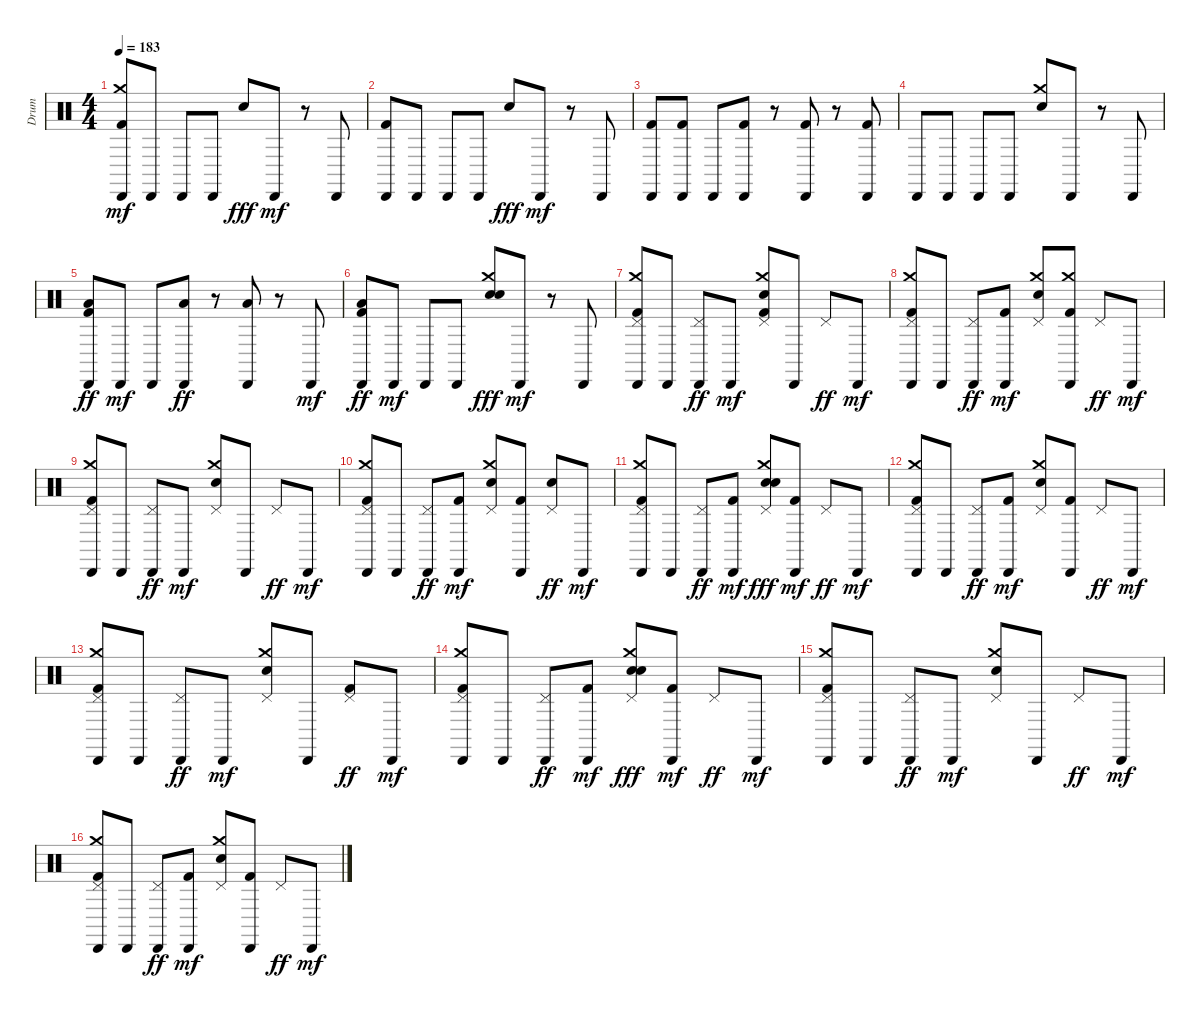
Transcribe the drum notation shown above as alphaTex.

\track ("Drum" "Drum") {instrument percussion}
\staff {score}
\articulation defaults
\ts (4 4)
\tempo 183
\clef neutral
\ks c
("Cabasa (hit)" "Kick (hit) 2" "Crash medium (hit)").8{dy mf} "Cabasa (hit)".8 "Cabasa (hit)".8 "Cabasa (hit)".8 "Electric Snare (hit)".8{dy fff} "Cabasa (hit)".8{dy mf} r.8 "Cabasa (hit)".8 |
("Cabasa (hit)" "Kick (hit) 2").8 "Cabasa (hit)".8 "Cabasa (hit)".8 "Cabasa (hit)".8 "Electric Snare (hit)".8{dy fff} "Cabasa (hit)".8{dy mf} r.8 "Cabasa (hit)".8 |
("Cabasa (hit)" "Kick (hit) 2").8 ("Cabasa (hit)" "Kick (hit) 2").8 "Cabasa (hit)".8 ("Cabasa (hit)" "Kick (hit) 2").8 r.8 ("Cabasa (hit)" "Kick (hit) 2").8 r.8 ("Cabasa (hit)" "Kick (hit) 2").8 |
"Cabasa (hit)".8 "Cabasa (hit)".8 "Cabasa (hit)".8 "Cabasa (hit)".8 ("Electric Snare (hit)" "Crash medium (hit)").8 "Cabasa (hit)".8 r.8 "Cabasa (hit)".8 |
("Cabasa (hit)" "Kick (hit) 2" "Low Tom (hit)").8{dy ff} "Cabasa (hit)".8{dy mf} "Cabasa (hit)".8 ("Cabasa (hit)" "Low Tom (hit)").8{dy ff} r.8 ("Cabasa (hit)" "Low Tom (hit)").8 r.8 "Cabasa (hit)".8{dy mf} |
("Cabasa (hit)" "Kick (hit) 2" "Low Tom (hit)").8{dy ff} "Cabasa (hit)".8{dy mf} "Cabasa (hit)".8 "Cabasa (hit)".8 ("Electric Snare (hit)" "Crash medium (hit)" "Electric Snare (hit)").8{dy fff} "Cabasa (hit)".8{dy mf} r.8 "Cabasa (hit)".8 |
("Cabasa (hit)" "Kick (hit) 2" "Pedal Hi-Hat (hit)" "Crash medium (hit)").8 "Cabasa (hit)".8 ("Cabasa (hit)" "Pedal Hi-Hat (hit)").8{dy ff} "Cabasa (hit)".8{dy mf} ("Kick (hit) 2" "Electric Snare (hit)" "Pedal Hi-Hat (hit)" "Crash medium (hit)").8 "Cabasa (hit)".8 "Pedal Hi-Hat (hit)".8{dy ff} "Cabasa (hit)".8{dy mf} |
("Cabasa (hit)" "Kick (hit) 2" "Pedal Hi-Hat (hit)" "Crash medium (hit)").8 "Cabasa (hit)".8 ("Cabasa (hit)" "Pedal Hi-Hat (hit)").8{dy ff} ("Cabasa (hit)" "Kick (hit) 2").8{dy mf} ("Electric Snare (hit)" "Pedal Hi-Hat (hit)" "Crash medium (hit)").8 ("Cabasa (hit)" "Kick (hit) 2" "Crash medium (hit)").8 "Pedal Hi-Hat (hit)".8{dy ff} "Cabasa (hit)".8{dy mf} |
("Cabasa (hit)" "Kick (hit) 2" "Pedal Hi-Hat (hit)" "Crash medium (hit)").8 "Cabasa (hit)".8 ("Cabasa (hit)" "Pedal Hi-Hat (hit)").8{dy ff} "Cabasa (hit)".8{dy mf} ("Electric Snare (hit)" "Pedal Hi-Hat (hit)" "Crash medium (hit)").8 "Cabasa (hit)".8 "Pedal Hi-Hat (hit)".8{dy ff} "Cabasa (hit)".8{dy mf} |
("Cabasa (hit)" "Kick (hit) 2" "Pedal Hi-Hat (hit)" "Crash medium (hit)").8 "Cabasa (hit)".8 ("Cabasa (hit)" "Pedal Hi-Hat (hit)").8{dy ff} ("Cabasa (hit)" "Kick (hit) 2").8{dy mf} ("Electric Snare (hit)" "Pedal Hi-Hat (hit)" "Crash medium (hit)").8 ("Cabasa (hit)" "Kick (hit) 2").8 ("Electric Snare (hit)" "Pedal Hi-Hat (hit)").8{dy ff} "Cabasa (hit)".8{dy mf} |
("Cabasa (hit)" "Kick (hit) 2" "Pedal Hi-Hat (hit)" "Crash medium (hit)").8 "Cabasa (hit)".8 ("Cabasa (hit)" "Pedal Hi-Hat (hit)").8{dy ff} ("Cabasa (hit)" "Kick (hit) 2").8{dy mf} ("Electric Snare (hit)" "Pedal Hi-Hat (hit)" "Crash medium (hit)" "Electric Snare (hit)").8{dy fff} ("Cabasa (hit)" "Kick (hit) 2").8{dy mf} "Pedal Hi-Hat (hit)".8{dy ff} "Cabasa (hit)".8{dy mf} |
("Cabasa (hit)" "Kick (hit) 2" "Pedal Hi-Hat (hit)" "Crash medium (hit)").8 "Cabasa (hit)".8 ("Cabasa (hit)" "Pedal Hi-Hat (hit)").8{dy ff} ("Cabasa (hit)" "Kick (hit) 2").8{dy mf} ("Electric Snare (hit)" "Pedal Hi-Hat (hit)" "Crash medium (hit)").8 ("Cabasa (hit)" "Kick (hit) 2").8 "Pedal Hi-Hat (hit)".8{dy ff} "Cabasa (hit)".8{dy mf} |
("Cabasa (hit)" "Kick (hit) 2" "Pedal Hi-Hat (hit)" "Crash medium (hit)").8 "Cabasa (hit)".8 ("Cabasa (hit)" "Pedal Hi-Hat (hit)").8{dy ff} "Cabasa (hit)".8{dy mf} ("Electric Snare (hit)" "Pedal Hi-Hat (hit)" "Crash medium (hit)").8 "Cabasa (hit)".8 ("Kick (hit) 2" "Pedal Hi-Hat (hit)").8{dy ff} "Cabasa (hit)".8{dy mf} |
("Cabasa (hit)" "Kick (hit) 2" "Pedal Hi-Hat (hit)" "Crash medium (hit)").8 "Cabasa (hit)".8 ("Cabasa (hit)" "Pedal Hi-Hat (hit)").8{dy ff} ("Cabasa (hit)" "Kick (hit) 2").8{dy mf} ("Electric Snare (hit)" "Pedal Hi-Hat (hit)" "Crash medium (hit)" "Electric Snare (hit)").8{dy fff} ("Cabasa (hit)" "Kick (hit) 2").8{dy mf} "Pedal Hi-Hat (hit)".8{dy ff} "Cabasa (hit)".8{dy mf} |
("Cabasa (hit)" "Kick (hit) 2" "Pedal Hi-Hat (hit)" "Crash medium (hit)").8 "Cabasa (hit)".8 ("Cabasa (hit)" "Pedal Hi-Hat (hit)").8{dy ff} "Cabasa (hit)".8{dy mf} ("Electric Snare (hit)" "Pedal Hi-Hat (hit)" "Crash medium (hit)").8 "Cabasa (hit)".8 "Pedal Hi-Hat (hit)".8{dy ff} "Cabasa (hit)".8{dy mf} |
("Cabasa (hit)" "Kick (hit) 2" "Pedal Hi-Hat (hit)" "Crash medium (hit)").8 "Cabasa (hit)".8 ("Cabasa (hit)" "Pedal Hi-Hat (hit)").8{dy ff} ("Cabasa (hit)" "Kick (hit) 2").8{dy mf} ("Electric Snare (hit)" "Pedal Hi-Hat (hit)" "Crash medium (hit)").8 ("Cabasa (hit)" "Kick (hit) 2").8 "Pedal Hi-Hat (hit)".8{dy ff} "Cabasa (hit)".8{dy mf}
